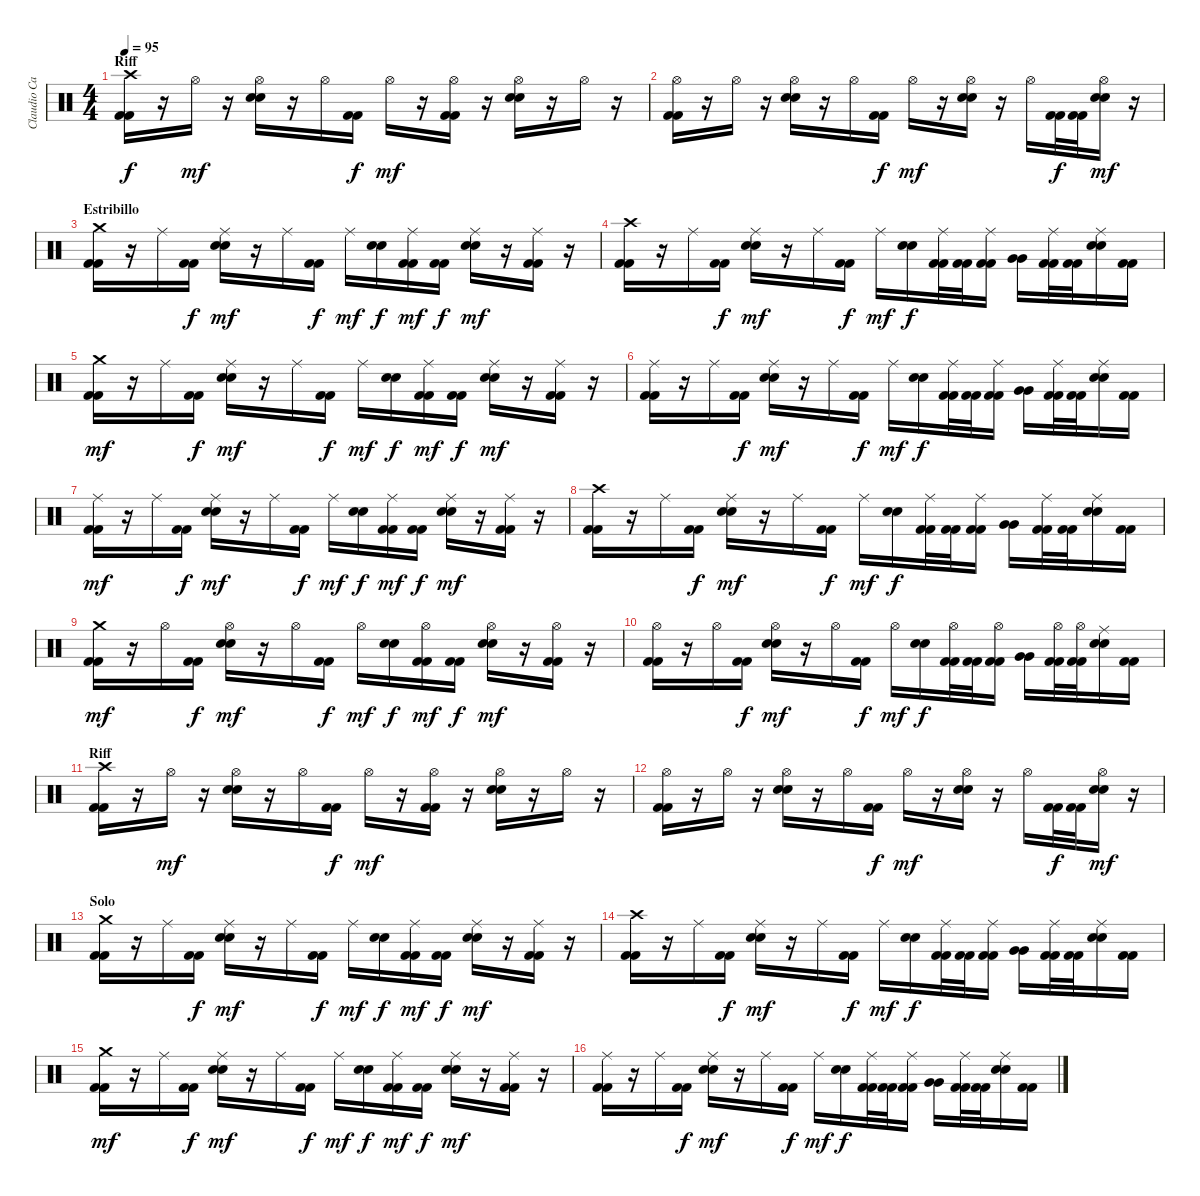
\track ("Claudio Cardaci (bateria)" "Claudio Ca") {instrument percussion}
\staff {score}
\articulation defaults
\ts (4 4)
\section ("" "Riff")
\tempo 95
\clef neutral
\ks c
("Crash high (hit)" "Kick (hit) 2" "Kick (hit) 2").16{dy f} r.16 "Hi-Hat (open)".16{dy mf} r.16 ("Hi-Hat (open)" "Snare (hit) 2" "Snare (hit) 2").16 r.16 "Hi-Hat (open)".16 ("Kick (hit) 2" "Kick (hit) 2").16{dy f} "Hi-Hat (open)".16{dy mf} r.16 ("Hi-Hat (open)" "Kick (hit) 2" "Kick (hit) 2").16 r.16 ("Hi-Hat (open)" "Snare (hit) 2" "Snare (hit) 2").16 r.16 "Hi-Hat (open)".16 r.16 |
("Hi-Hat (open)" "Kick (hit) 2" "Kick (hit) 2").16 r.16 "Hi-Hat (open)".16 r.16 ("Hi-Hat (open)" "Snare (hit) 2" "Snare (hit) 2").16 r.16 "Hi-Hat (open)".16 ("Kick (hit) 2" "Kick (hit) 2").16{dy f} "Hi-Hat (open)".16{dy mf} r.16 ("Hi-Hat (open)" "Snare (hit) 2" "Snare (hit) 2").16 r.16 "Hi-Hat (open)".16 ("Kick (hit) 2" "Kick (hit) 2").32{dy f} ("Kick (hit) 2" "Kick (hit) 2").32 ("Hi-Hat (open)" "Snare (hit) 2" "Snare (hit) 2").16{dy mf} r.16 |
\section ("" "Estribillo")
("Crash medium (hit)" "Kick (hit) 2" "Kick (hit) 2").16 r.16 "Ride (middle)".16 ("Kick (hit) 2" "Kick (hit) 2").16{dy f} ("Ride (middle)" "Snare (hit) 2" "Snare (hit) 2").16{dy mf} r.16 "Ride (middle)".16 ("Kick (hit) 2" "Kick (hit) 2").16{dy f} "Ride (middle)".16{dy mf} ("Snare (hit) 2" "Snare (hit) 2").16{dy f} ("Ride (middle)" "Kick (hit) 2" "Kick (hit) 2").16{dy mf} ("Kick (hit) 2" "Kick (hit) 2").16{dy f} ("Ride (middle)" "Snare (hit) 2" "Snare (hit) 2").16{dy mf} r.16 ("Ride (middle)" "Kick (hit) 2" "Kick (hit) 2").16 r.16 |
("Crash high (hit)" "Kick (hit) 2" "Kick (hit) 2").16 r.16 "Ride (middle)".16 ("Kick (hit) 2" "Kick (hit) 2").16{dy f} ("Ride (middle)" "Snare (hit) 2" "Snare (hit) 2").16{dy mf} r.16 "Ride (middle)".16 ("Kick (hit) 2" "Kick (hit) 2").16{dy f} "Ride (middle)".16{dy mf} ("Snare (hit) 2" "Snare (hit) 2").16{dy f} ("Ride (middle)" "Kick (hit) 2" "Kick (hit) 2").32 ("Kick (hit) 2" "Kick (hit) 2").32 ("Ride (middle)" "Kick (hit) 2" "Kick (hit) 2").16 ("Very Low Tom (hit)" "Very Low Tom (hit)").16 ("Ride (middle)" "Kick (hit) 2" "Kick (hit) 2").32 ("Kick (hit) 2" "Kick (hit) 2").32 ("Ride (middle)" "Snare (hit) 2" "Snare (hit) 2").16 ("Kick (hit) 2" "Kick (hit) 2").16 |
("Crash medium (hit)" "Kick (hit) 2" "Kick (hit) 2").16{dy mf} r.16 "Ride (middle)".16 ("Kick (hit) 2" "Kick (hit) 2").16{dy f} ("Ride (middle)" "Snare (hit) 2" "Snare (hit) 2").16{dy mf} r.16 "Ride (middle)".16 ("Kick (hit) 2" "Kick (hit) 2").16{dy f} "Ride (middle)".16{dy mf} ("Snare (hit) 2" "Snare (hit) 2").16{dy f} ("Ride (middle)" "Kick (hit) 2" "Kick (hit) 2").16{dy mf} ("Kick (hit) 2" "Kick (hit) 2").16{dy f} ("Ride (middle)" "Snare (hit) 2" "Snare (hit) 2").16{dy mf} r.16 ("Ride (middle)" "Kick (hit) 2" "Kick (hit) 2").16 r.16 |
("Ride (middle)" "Kick (hit) 2" "Kick (hit) 2").16 r.16 "Ride (middle)".16 ("Kick (hit) 2" "Kick (hit) 2").16{dy f} ("Ride (middle)" "Snare (hit) 2" "Snare (hit) 2").16{dy mf} r.16 "Ride (middle)".16 ("Kick (hit) 2" "Kick (hit) 2").16{dy f} "Ride (middle)".16{dy mf} ("Snare (hit) 2" "Snare (hit) 2").16{dy f} ("Ride (middle)" "Kick (hit) 2" "Kick (hit) 2").32 ("Kick (hit) 2" "Kick (hit) 2").32 ("Ride (middle)" "Kick (hit) 2" "Kick (hit) 2").16 ("Very Low Tom (hit)" "Very Low Tom (hit)").16 ("Ride (middle)" "Kick (hit) 2" "Kick (hit) 2").32 ("Kick (hit) 2" "Kick (hit) 2").32 ("Ride (middle)" "Snare (hit) 2" "Snare (hit) 2").16 ("Kick (hit) 2" "Kick (hit) 2").16 |
("Ride (middle)" "Kick (hit) 2" "Kick (hit) 2").16{dy mf} r.16 "Ride (middle)".16 ("Kick (hit) 2" "Kick (hit) 2").16{dy f} ("Ride (middle)" "Snare (hit) 2" "Snare (hit) 2").16{dy mf} r.16 "Ride (middle)".16 ("Kick (hit) 2" "Kick (hit) 2").16{dy f} "Ride (middle)".16{dy mf} ("Snare (hit) 2" "Snare (hit) 2").16{dy f} ("Ride (middle)" "Kick (hit) 2" "Kick (hit) 2").16{dy mf} ("Kick (hit) 2" "Kick (hit) 2").16{dy f} ("Ride (middle)" "Snare (hit) 2" "Snare (hit) 2").16{dy mf} r.16 ("Ride (middle)" "Kick (hit) 2" "Kick (hit) 2").16 r.16 |
("Crash high (hit)" "Kick (hit) 2" "Kick (hit) 2").16 r.16 "Ride (middle)".16 ("Kick (hit) 2" "Kick (hit) 2").16{dy f} ("Ride (middle)" "Snare (hit) 2" "Snare (hit) 2").16{dy mf} r.16 "Ride (middle)".16 ("Kick (hit) 2" "Kick (hit) 2").16{dy f} "Ride (middle)".16{dy mf} ("Snare (hit) 2" "Snare (hit) 2").16{dy f} ("Ride (middle)" "Kick (hit) 2" "Kick (hit) 2").32 ("Kick (hit) 2" "Kick (hit) 2").32 ("Ride (middle)" "Kick (hit) 2" "Kick (hit) 2").16 ("Very Low Tom (hit)" "Very Low Tom (hit)").16 ("Ride (middle)" "Kick (hit) 2" "Kick (hit) 2").32 ("Kick (hit) 2" "Kick (hit) 2").32 ("Ride (middle)" "Snare (hit) 2" "Snare (hit) 2").16 ("Kick (hit) 2" "Kick (hit) 2").16 |
("Crash medium (hit)" "Kick (hit) 2" "Kick (hit) 2").16{dy mf} r.16 "Hi-Hat (open)".16 ("Kick (hit) 2" "Kick (hit) 2").16{dy f} ("Hi-Hat (open)" "Snare (hit) 2" "Snare (hit) 2").16{dy mf} r.16 "Hi-Hat (open)".16 ("Kick (hit) 2" "Kick (hit) 2").16{dy f} "Hi-Hat (open)".16{dy mf} ("Snare (hit) 2" "Snare (hit) 2").16{dy f} ("Hi-Hat (open)" "Kick (hit) 2" "Kick (hit) 2").16{dy mf} ("Kick (hit) 2" "Kick (hit) 2").16{dy f} ("Hi-Hat (open)" "Snare (hit) 2" "Snare (hit) 2").16{dy mf} r.16 ("Hi-Hat (open)" "Kick (hit) 2" "Kick (hit) 2").16 r.16 |
("Hi-Hat (open)" "Kick (hit) 2" "Kick (hit) 2").16 r.16 "Hi-Hat (open)".16 ("Kick (hit) 2" "Kick (hit) 2").16{dy f} ("Hi-Hat (open)" "Snare (hit) 2" "Snare (hit) 2").16{dy mf} r.16 "Hi-Hat (open)".16 ("Kick (hit) 2" "Kick (hit) 2").16{dy f} "Hi-Hat (open)".16{dy mf} ("Snare (hit) 2" "Snare (hit) 2").16{dy f} ("Hi-Hat (open)" "Kick (hit) 2" "Kick (hit) 2").32 ("Kick (hit) 2" "Kick (hit) 2").32 ("Hi-Hat (open)" "Kick (hit) 2" "Kick (hit) 2").16 ("Very Low Tom (hit)" "Very Low Tom (hit)").16 ("Hi-Hat (open)" "Kick (hit) 2" "Kick (hit) 2").32 ("Hi-Hat (open)" "Kick (hit) 2" "Kick (hit) 2").32 ("Ride (middle)" "Snare (hit) 2" "Snare (hit) 2").16 ("Kick (hit) 2" "Kick (hit) 2").16 |
\section ("" "Riff")
("Crash high (hit)" "Kick (hit) 2" "Kick (hit) 2").16 r.16 "Hi-Hat (open)".16{dy mf} r.16 ("Hi-Hat (open)" "Snare (hit) 2" "Snare (hit) 2").16 r.16 "Hi-Hat (open)".16 ("Kick (hit) 2" "Kick (hit) 2").16{dy f} "Hi-Hat (open)".16{dy mf} r.16 ("Hi-Hat (open)" "Kick (hit) 2" "Kick (hit) 2").16 r.16 ("Hi-Hat (open)" "Snare (hit) 2" "Snare (hit) 2").16 r.16 "Hi-Hat (open)".16 r.16 |
("Hi-Hat (open)" "Kick (hit) 2" "Kick (hit) 2").16 r.16 "Hi-Hat (open)".16 r.16 ("Hi-Hat (open)" "Snare (hit) 2" "Snare (hit) 2").16 r.16 "Hi-Hat (open)".16 ("Kick (hit) 2" "Kick (hit) 2").16{dy f} "Hi-Hat (open)".16{dy mf} r.16 ("Hi-Hat (open)" "Snare (hit) 2" "Snare (hit) 2").16 r.16 "Hi-Hat (open)".16 ("Kick (hit) 2" "Kick (hit) 2").32{dy f} ("Kick (hit) 2" "Kick (hit) 2").32 ("Hi-Hat (open)" "Snare (hit) 2" "Snare (hit) 2").16{dy mf} r.16 |
\section ("" "Solo")
("Crash medium (hit)" "Kick (hit) 2" "Kick (hit) 2").16 r.16 "Ride (middle)".16 ("Kick (hit) 2" "Kick (hit) 2").16{dy f} ("Ride (middle)" "Snare (hit) 2" "Snare (hit) 2").16{dy mf} r.16 "Ride (middle)".16 ("Kick (hit) 2" "Kick (hit) 2").16{dy f} "Ride (middle)".16{dy mf} ("Snare (hit) 2" "Snare (hit) 2").16{dy f} ("Ride (middle)" "Kick (hit) 2" "Kick (hit) 2").16{dy mf} ("Kick (hit) 2" "Kick (hit) 2").16{dy f} ("Ride (middle)" "Snare (hit) 2" "Snare (hit) 2").16{dy mf} r.16 ("Ride (middle)" "Kick (hit) 2" "Kick (hit) 2").16 r.16 |
("Crash high (hit)" "Kick (hit) 2" "Kick (hit) 2").16 r.16 "Ride (middle)".16 ("Kick (hit) 2" "Kick (hit) 2").16{dy f} ("Ride (middle)" "Snare (hit) 2" "Snare (hit) 2").16{dy mf} r.16 "Ride (middle)".16 ("Kick (hit) 2" "Kick (hit) 2").16{dy f} "Ride (middle)".16{dy mf} ("Snare (hit) 2" "Snare (hit) 2").16{dy f} ("Ride (middle)" "Kick (hit) 2" "Kick (hit) 2").32 ("Kick (hit) 2" "Kick (hit) 2").32 ("Ride (middle)" "Kick (hit) 2" "Kick (hit) 2").16 ("Very Low Tom (hit)" "Very Low Tom (hit)").16 ("Ride (middle)" "Kick (hit) 2" "Kick (hit) 2").32 ("Kick (hit) 2" "Kick (hit) 2").32 ("Ride (middle)" "Snare (hit) 2" "Snare (hit) 2").16 ("Kick (hit) 2" "Kick (hit) 2").16 |
("Crash medium (hit)" "Kick (hit) 2" "Kick (hit) 2").16{dy mf} r.16 "Ride (middle)".16 ("Kick (hit) 2" "Kick (hit) 2").16{dy f} ("Ride (middle)" "Snare (hit) 2" "Snare (hit) 2").16{dy mf} r.16 "Ride (middle)".16 ("Kick (hit) 2" "Kick (hit) 2").16{dy f} "Ride (middle)".16{dy mf} ("Snare (hit) 2" "Snare (hit) 2").16{dy f} ("Ride (middle)" "Kick (hit) 2" "Kick (hit) 2").16{dy mf} ("Kick (hit) 2" "Kick (hit) 2").16{dy f} ("Ride (middle)" "Snare (hit) 2" "Snare (hit) 2").16{dy mf} r.16 ("Ride (middle)" "Kick (hit) 2" "Kick (hit) 2").16 r.16 |
("Ride (middle)" "Kick (hit) 2" "Kick (hit) 2").16 r.16 "Ride (middle)".16 ("Kick (hit) 2" "Kick (hit) 2").16{dy f} ("Ride (middle)" "Snare (hit) 2" "Snare (hit) 2").16{dy mf} r.16 "Ride (middle)".16 ("Kick (hit) 2" "Kick (hit) 2").16{dy f} "Ride (middle)".16{dy mf} ("Snare (hit) 2" "Snare (hit) 2").16{dy f} ("Ride (middle)" "Kick (hit) 2" "Kick (hit) 2").32 ("Kick (hit) 2" "Kick (hit) 2").32 ("Ride (middle)" "Kick (hit) 2" "Kick (hit) 2").16 ("Very Low Tom (hit)" "Very Low Tom (hit)").16 ("Ride (middle)" "Kick (hit) 2" "Kick (hit) 2").32 ("Kick (hit) 2" "Kick (hit) 2").32 ("Ride (middle)" "Snare (hit) 2" "Snare (hit) 2").16 ("Kick (hit) 2" "Kick (hit) 2").16
